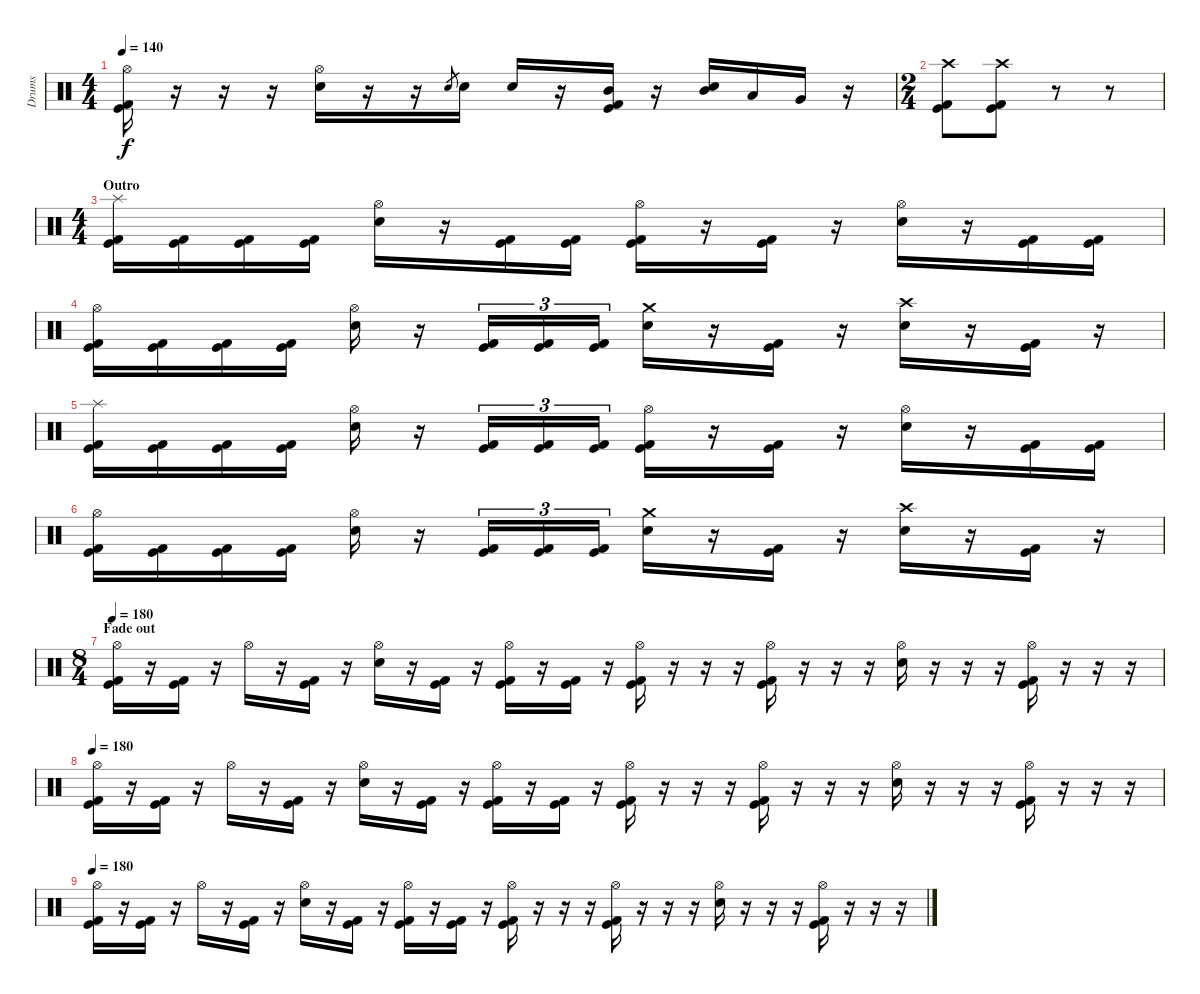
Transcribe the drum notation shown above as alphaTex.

\track ("Drums" "Drums") {instrument percussion}
\staff {score}
\articulation defaults
\ts (4 4)
\tempo 140
\clef neutral
\ks c
("Hi-Hat (open)" "Kick (hit)" "Kick (hit) 2").16{dy f} r.16 r.16 r.16 ("Hi-Hat (open)" "Electric Snare (hit)").16 r.16 r.16 "Electric Snare (hit)".8{gr} "Electric Snare (hit)".16 "Electric Snare (hit)".16 r.16 ("Mid Tom (hit)" "Kick (hit)" "Kick (hit) 2").16 r.16 ("Mid Tom (hit)" "Electric Snare (hit)").16 "Low Tom (hit)".16 "Very Low Tom (hit)".16 r.16 |
\ts (2 4)
("Crash high (hit)" "Kick (hit)" "Kick (hit) 2").8 ("Crash high (hit)" "Kick (hit)" "Kick (hit) 2").8 r.8 r.8 |
\ts (4 4)
\section ("" "Outro")
("Splash (hit)" "Kick (hit)" "Kick (hit) 2").16 ("Kick (hit)" "Kick (hit) 2").16 ("Kick (hit)" "Kick (hit) 2").16 ("Kick (hit)" "Kick (hit) 2").16 ("Hi-Hat (open)" "Electric Snare (hit)").16 r.16 ("Kick (hit)" "Kick (hit) 2").16 ("Kick (hit)" "Kick (hit) 2").16 ("Hi-Hat (open)" "Kick (hit)" "Kick (hit) 2").16 r.16 ("Kick (hit)" "Kick (hit) 2").16 r.16 ("Hi-Hat (open)" "Electric Snare (hit)").16 r.16 ("Kick (hit)" "Kick (hit) 2").16 ("Kick (hit)" "Kick (hit) 2").16 |
("Hi-Hat (open)" "Kick (hit)" "Kick (hit) 2").16 ("Kick (hit)" "Kick (hit) 2").16 ("Kick (hit)" "Kick (hit) 2").16 ("Kick (hit)" "Kick (hit) 2").16 ("Hi-Hat (open)" "Electric Snare (hit)").16 r.16 ("Kick (hit)" "Kick (hit) 2").16{tu (3 2)} ("Kick (hit)" "Kick (hit) 2").16{tu (3 2)} ("Kick (hit)" "Kick (hit) 2").16{tu (3 2)} ("Crash medium (hit)" "Electric Snare (hit)").16 r.16 ("Kick (hit)" "Kick (hit) 2").16 r.16 ("Crash high (hit)" "Electric Snare (hit)").16 r.16 ("Kick (hit)" "Kick (hit) 2").16 r.16 |
("Splash (hit)" "Kick (hit)" "Kick (hit) 2").16 ("Kick (hit)" "Kick (hit) 2").16 ("Kick (hit)" "Kick (hit) 2").16 ("Kick (hit)" "Kick (hit) 2").16 ("Hi-Hat (open)" "Electric Snare (hit)").16 r.16 ("Kick (hit)" "Kick (hit) 2").16{tu (3 2)} ("Kick (hit)" "Kick (hit) 2").16{tu (3 2)} ("Kick (hit)" "Kick (hit) 2").16{tu (3 2)} ("Hi-Hat (open)" "Kick (hit)" "Kick (hit) 2").16 r.16 ("Kick (hit)" "Kick (hit) 2").16 r.16 ("Hi-Hat (open)" "Electric Snare (hit)").16 r.16 ("Kick (hit)" "Kick (hit) 2").16 ("Kick (hit)" "Kick (hit) 2").16 |
("Hi-Hat (open)" "Kick (hit)" "Kick (hit) 2").16 ("Kick (hit)" "Kick (hit) 2").16 ("Kick (hit)" "Kick (hit) 2").16 ("Kick (hit)" "Kick (hit) 2").16 ("Hi-Hat (open)" "Electric Snare (hit)").16 r.16 ("Kick (hit)" "Kick (hit) 2").16{tu (3 2)} ("Kick (hit)" "Kick (hit) 2").16{tu (3 2)} ("Kick (hit)" "Kick (hit) 2").16{tu (3 2)} ("Crash medium (hit)" "Electric Snare (hit)").16 r.16 ("Kick (hit)" "Kick (hit) 2").16 r.16 ("Crash high (hit)" "Electric Snare (hit)").16 r.16 ("Kick (hit)" "Kick (hit) 2").16 r.16 |
\ts (8 4)
\section ("" "Fade out")
\tempo 180
("Hi-Hat (open)" "Kick (hit)" "Kick (hit) 2").16 r.16 ("Kick (hit)" "Kick (hit) 2").16 r.16 "Hi-Hat (open)".16 r.16 ("Kick (hit)" "Kick (hit) 2").16 r.16 ("Hi-Hat (open)" "Electric Snare (hit)").16 r.16 ("Kick (hit)" "Kick (hit) 2").16 r.16 ("Hi-Hat (open)" "Kick (hit)" "Kick (hit) 2").16 r.16 ("Kick (hit)" "Kick (hit) 2").16 r.16 ("Hi-Hat (open)" "Kick (hit)" "Kick (hit) 2").16 r.16 r.16 r.16 ("Hi-Hat (open)" "Kick (hit)" "Kick (hit) 2").16 r.16 r.16 r.16 ("Hi-Hat (open)" "Electric Snare (hit)").16 r.16 r.16 r.16 ("Hi-Hat (open)" "Kick (hit)" "Kick (hit) 2").16 r.16 r.16 r.16 |
\tempo 180
("Hi-Hat (open)" "Kick (hit)" "Kick (hit) 2").16 r.16 ("Kick (hit)" "Kick (hit) 2").16 r.16 "Hi-Hat (open)".16 r.16 ("Kick (hit)" "Kick (hit) 2").16 r.16 ("Hi-Hat (open)" "Electric Snare (hit)").16 r.16 ("Kick (hit)" "Kick (hit) 2").16 r.16 ("Hi-Hat (open)" "Kick (hit)" "Kick (hit) 2").16 r.16 ("Kick (hit)" "Kick (hit) 2").16 r.16 ("Hi-Hat (open)" "Kick (hit)" "Kick (hit) 2").16 r.16 r.16 r.16 ("Hi-Hat (open)" "Kick (hit)" "Kick (hit) 2").16 r.16 r.16 r.16 ("Hi-Hat (open)" "Electric Snare (hit)").16 r.16 r.16 r.16 ("Hi-Hat (open)" "Kick (hit)" "Kick (hit) 2").16 r.16 r.16 r.16 |
\tempo 180
("Hi-Hat (open)" "Kick (hit)" "Kick (hit) 2").16 r.16 ("Kick (hit)" "Kick (hit) 2").16 r.16 "Hi-Hat (open)".16 r.16 ("Kick (hit)" "Kick (hit) 2").16 r.16 ("Hi-Hat (open)" "Electric Snare (hit)").16 r.16 ("Kick (hit)" "Kick (hit) 2").16 r.16 ("Hi-Hat (open)" "Kick (hit)" "Kick (hit) 2").16 r.16 ("Kick (hit)" "Kick (hit) 2").16 r.16 ("Hi-Hat (open)" "Kick (hit)" "Kick (hit) 2").16 r.16 r.16 r.16 ("Hi-Hat (open)" "Kick (hit)" "Kick (hit) 2").16 r.16 r.16 r.16 ("Hi-Hat (open)" "Electric Snare (hit)").16 r.16 r.16 r.16 ("Hi-Hat (open)" "Kick (hit)" "Kick (hit) 2").16 r.16 r.16 r.16
